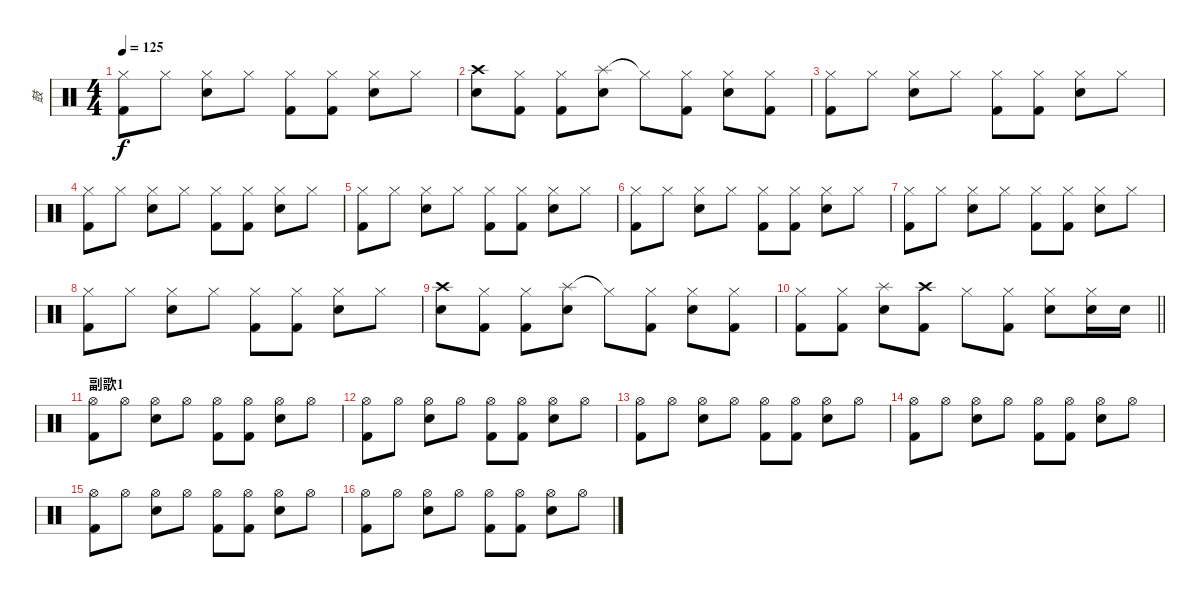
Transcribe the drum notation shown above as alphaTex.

\track ("鼓" "鼓") {instrument percussion}
\staff {score}
\articulation defaults
\ts (4 4)
\tempo 125
\clef neutral
\ks c
("Hi-Hat (closed)" "Kick (hit) 2").8{dy f} "Hi-Hat (closed)".8 ("Hi-Hat (closed)" "Snare (hit) 2").8 "Hi-Hat (closed)".8 ("Hi-Hat (closed)" "Kick (hit) 2").8 ("Hi-Hat (closed)" "Kick (hit) 2").8 ("Hi-Hat (closed)" "Snare (hit) 2").8 "Hi-Hat (closed)".8 |
("Crash high (hit)" "Snare (hit) 2").8 ("Hi-Hat (closed)" "Kick (hit) 2").8 ("Hi-Hat (closed)" "Kick (hit) 2").8 ("Splash (hit)" "Snare (hit) 2").8 "Hi-Hat (closed)"{t}.8 ("Hi-Hat (closed)" "Kick (hit) 2").8 ("Hi-Hat (closed)" "Snare (hit) 2").8 ("Hi-Hat (closed)" "Kick (hit) 2").8 |
("Hi-Hat (closed)" "Kick (hit) 2").8 "Hi-Hat (closed)".8 ("Hi-Hat (closed)" "Snare (hit) 2").8 "Hi-Hat (closed)".8 ("Hi-Hat (closed)" "Kick (hit) 2").8 ("Hi-Hat (closed)" "Kick (hit) 2").8 ("Hi-Hat (closed)" "Snare (hit) 2").8 "Hi-Hat (closed)".8 |
("Hi-Hat (closed)" "Kick (hit) 2").8 "Hi-Hat (closed)".8 ("Hi-Hat (closed)" "Snare (hit) 2").8 "Hi-Hat (closed)".8 ("Hi-Hat (closed)" "Kick (hit) 2").8 ("Hi-Hat (closed)" "Kick (hit) 2").8 ("Hi-Hat (closed)" "Snare (hit) 2").8 "Hi-Hat (closed)".8 |
("Hi-Hat (closed)" "Kick (hit) 2").8 "Hi-Hat (closed)".8 ("Hi-Hat (closed)" "Snare (hit) 2").8 "Hi-Hat (closed)".8 ("Hi-Hat (closed)" "Kick (hit) 2").8 ("Hi-Hat (closed)" "Kick (hit) 2").8 ("Hi-Hat (closed)" "Snare (hit) 2").8 "Hi-Hat (closed)".8 |
("Hi-Hat (closed)" "Kick (hit) 2").8 "Hi-Hat (closed)".8 ("Hi-Hat (closed)" "Snare (hit) 2").8 "Hi-Hat (closed)".8 ("Hi-Hat (closed)" "Kick (hit) 2").8 ("Hi-Hat (closed)" "Kick (hit) 2").8 ("Hi-Hat (closed)" "Snare (hit) 2").8 "Hi-Hat (closed)".8 |
("Hi-Hat (closed)" "Kick (hit) 2").8 "Hi-Hat (closed)".8 ("Hi-Hat (closed)" "Snare (hit) 2").8 "Hi-Hat (closed)".8 ("Hi-Hat (closed)" "Kick (hit) 2").8 ("Hi-Hat (closed)" "Kick (hit) 2").8 ("Hi-Hat (closed)" "Snare (hit) 2").8 "Hi-Hat (closed)".8 |
("Hi-Hat (closed)" "Kick (hit) 2").8 "Hi-Hat (closed)".8 ("Hi-Hat (closed)" "Snare (hit) 2").8 "Hi-Hat (closed)".8 ("Hi-Hat (closed)" "Kick (hit) 2").8 ("Hi-Hat (closed)" "Kick (hit) 2").8 ("Hi-Hat (closed)" "Snare (hit) 2").8 "Hi-Hat (closed)".8 |
("Crash high (hit)" "Snare (hit) 2").8 ("Hi-Hat (closed)" "Kick (hit) 2").8 ("Hi-Hat (closed)" "Kick (hit) 2").8 ("Splash (hit)" "Snare (hit) 2").8 "Hi-Hat (closed)"{t}.8 ("Hi-Hat (closed)" "Kick (hit) 2").8 ("Hi-Hat (closed)" "Snare (hit) 2").8 ("Hi-Hat (closed)" "Kick (hit) 2").8 |
\barLineRight lightlight
("Hi-Hat (closed)" "Kick (hit) 2").8 ("Hi-Hat (closed)" "Kick (hit) 2").8 ("Splash (hit)" "Snare (hit) 2").8 ("Crash high (hit)" "Kick (hit) 2").8 "Hi-Hat (closed)".8 ("Hi-Hat (closed)" "Kick (hit) 2").8 ("Hi-Hat (closed)" "Snare (hit) 2").8 ("Hi-Hat (closed)" "Snare (hit) 2").16 "Snare (hit) 2".16 |
\section ("" "副歌1")
("Hi-Hat (open)" "Kick (hit) 2").8 "Hi-Hat (open)".8 ("Hi-Hat (open)" "Snare (hit) 2").8 "Hi-Hat (open)".8 ("Hi-Hat (open)" "Kick (hit) 2").8 ("Hi-Hat (open)" "Kick (hit) 2").8 ("Hi-Hat (open)" "Snare (hit) 2").8 "Hi-Hat (open)".8 |
("Hi-Hat (open)" "Kick (hit) 2").8 "Hi-Hat (open)".8 ("Hi-Hat (open)" "Snare (hit) 2").8 "Hi-Hat (open)".8 ("Hi-Hat (open)" "Kick (hit) 2").8 ("Hi-Hat (open)" "Kick (hit) 2").8 ("Hi-Hat (open)" "Snare (hit) 2").8 "Hi-Hat (open)".8 |
("Hi-Hat (open)" "Kick (hit) 2").8 "Hi-Hat (open)".8 ("Hi-Hat (open)" "Snare (hit) 2").8 "Hi-Hat (open)".8 ("Hi-Hat (open)" "Kick (hit) 2").8 ("Hi-Hat (open)" "Kick (hit) 2").8 ("Hi-Hat (open)" "Snare (hit) 2").8 "Hi-Hat (open)".8 |
("Hi-Hat (open)" "Kick (hit) 2").8 "Hi-Hat (open)".8 ("Hi-Hat (open)" "Snare (hit) 2").8 "Hi-Hat (open)".8 ("Hi-Hat (open)" "Kick (hit) 2").8 ("Hi-Hat (open)" "Kick (hit) 2").8 ("Hi-Hat (open)" "Snare (hit) 2").8 "Hi-Hat (open)".8 |
("Hi-Hat (open)" "Kick (hit) 2").8 "Hi-Hat (open)".8 ("Hi-Hat (open)" "Snare (hit) 2").8 "Hi-Hat (open)".8 ("Hi-Hat (open)" "Kick (hit) 2").8 ("Hi-Hat (open)" "Kick (hit) 2").8 ("Hi-Hat (open)" "Snare (hit) 2").8 "Hi-Hat (open)".8 |
("Hi-Hat (open)" "Kick (hit) 2").8 "Hi-Hat (open)".8 ("Hi-Hat (open)" "Snare (hit) 2").8 "Hi-Hat (open)".8 ("Hi-Hat (open)" "Kick (hit) 2").8 ("Hi-Hat (open)" "Kick (hit) 2").8 ("Hi-Hat (open)" "Snare (hit) 2").8 "Hi-Hat (open)".8
